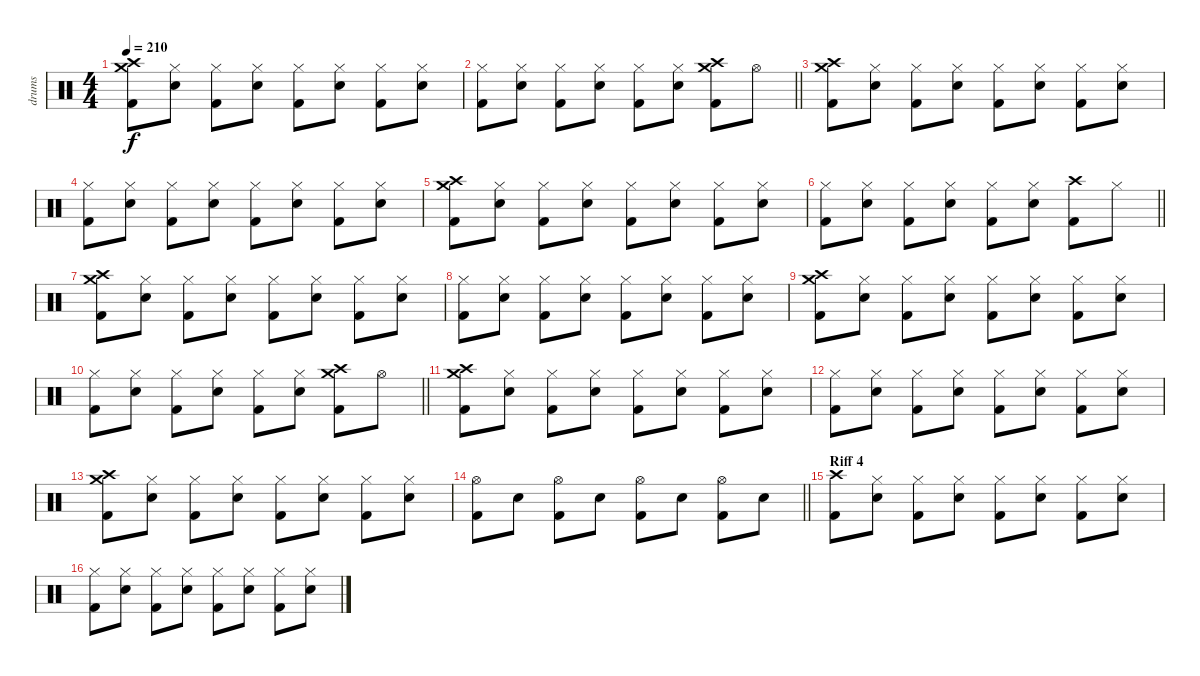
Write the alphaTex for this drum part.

\track ("drums" "drums") {instrument percussion}
\staff {score}
\articulation defaults
\ts (4 4)
\tempo 210
\clef neutral
\ks c
("Crash high (hit)" "Crash medium (hit)" "Kick (hit) 2").8{dy f} ("Hi-Hat (closed)" "Electric Snare (hit)").8 ("Hi-Hat (closed)" "Kick (hit) 2").8 ("Hi-Hat (closed)" "Electric Snare (hit)").8 ("Hi-Hat (closed)" "Kick (hit) 2").8 ("Hi-Hat (closed)" "Electric Snare (hit)").8 ("Hi-Hat (closed)" "Kick (hit) 2").8 ("Hi-Hat (closed)" "Electric Snare (hit)").8 |
\barLineRight lightlight
("Hi-Hat (closed)" "Kick (hit) 2").8 ("Hi-Hat (closed)" "Electric Snare (hit)").8 ("Hi-Hat (closed)" "Kick (hit) 2").8 ("Hi-Hat (closed)" "Electric Snare (hit)").8 ("Hi-Hat (closed)" "Kick (hit) 2").8 ("Hi-Hat (closed)" "Electric Snare (hit)").8 ("Crash high (hit)" "Crash medium (hit)" "Kick (hit) 2").8 "Hi-Hat (open)".8 |
("Crash high (hit)" "Crash medium (hit)" "Kick (hit) 2").8 ("Hi-Hat (closed)" "Electric Snare (hit)").8 ("Hi-Hat (closed)" "Kick (hit) 2").8 ("Hi-Hat (closed)" "Electric Snare (hit)").8 ("Hi-Hat (closed)" "Kick (hit) 2").8 ("Hi-Hat (closed)" "Electric Snare (hit)").8 ("Hi-Hat (closed)" "Kick (hit) 2").8 ("Hi-Hat (closed)" "Electric Snare (hit)").8 |
("Hi-Hat (closed)" "Kick (hit) 2").8 ("Hi-Hat (closed)" "Electric Snare (hit)").8 ("Hi-Hat (closed)" "Kick (hit) 2").8 ("Hi-Hat (closed)" "Electric Snare (hit)").8 ("Hi-Hat (closed)" "Kick (hit) 2").8 ("Hi-Hat (closed)" "Electric Snare (hit)").8 ("Hi-Hat (closed)" "Kick (hit) 2").8 ("Hi-Hat (closed)" "Electric Snare (hit)").8 |
("Crash high (hit)" "Crash medium (hit)" "Kick (hit) 2").8 ("Hi-Hat (closed)" "Electric Snare (hit)").8 ("Hi-Hat (closed)" "Kick (hit) 2").8 ("Hi-Hat (closed)" "Electric Snare (hit)").8 ("Hi-Hat (closed)" "Kick (hit) 2").8 ("Hi-Hat (closed)" "Electric Snare (hit)").8 ("Hi-Hat (closed)" "Kick (hit) 2").8 ("Hi-Hat (closed)" "Electric Snare (hit)").8 |
\barLineRight lightlight
("Hi-Hat (closed)" "Kick (hit) 2").8 ("Hi-Hat (closed)" "Electric Snare (hit)").8 ("Hi-Hat (closed)" "Kick (hit) 2").8 ("Hi-Hat (closed)" "Electric Snare (hit)").8 ("Hi-Hat (closed)" "Kick (hit) 2").8 ("Hi-Hat (closed)" "Electric Snare (hit)").8 ("Crash high (hit)" "Kick (hit) 2").8 "Hi-Hat (closed)".8 |
("Crash high (hit)" "Crash medium (hit)" "Kick (hit) 2").8 ("Hi-Hat (closed)" "Electric Snare (hit)").8 ("Hi-Hat (closed)" "Kick (hit) 2").8 ("Hi-Hat (closed)" "Electric Snare (hit)").8 ("Hi-Hat (closed)" "Kick (hit) 2").8 ("Hi-Hat (closed)" "Electric Snare (hit)").8 ("Hi-Hat (closed)" "Kick (hit) 2").8 ("Hi-Hat (closed)" "Electric Snare (hit)").8 |
("Hi-Hat (closed)" "Kick (hit) 2").8 ("Hi-Hat (closed)" "Electric Snare (hit)").8 ("Hi-Hat (closed)" "Kick (hit) 2").8 ("Hi-Hat (closed)" "Electric Snare (hit)").8 ("Hi-Hat (closed)" "Kick (hit) 2").8 ("Hi-Hat (closed)" "Electric Snare (hit)").8 ("Hi-Hat (closed)" "Kick (hit) 2").8 ("Hi-Hat (closed)" "Electric Snare (hit)").8 |
("Crash high (hit)" "Crash medium (hit)" "Kick (hit) 2").8 ("Hi-Hat (closed)" "Electric Snare (hit)").8 ("Hi-Hat (closed)" "Kick (hit) 2").8 ("Hi-Hat (closed)" "Electric Snare (hit)").8 ("Hi-Hat (closed)" "Kick (hit) 2").8 ("Hi-Hat (closed)" "Electric Snare (hit)").8 ("Hi-Hat (closed)" "Kick (hit) 2").8 ("Hi-Hat (closed)" "Electric Snare (hit)").8 |
\barLineRight lightlight
("Hi-Hat (closed)" "Kick (hit) 2").8 ("Hi-Hat (closed)" "Electric Snare (hit)").8 ("Hi-Hat (closed)" "Kick (hit) 2").8 ("Hi-Hat (closed)" "Electric Snare (hit)").8 ("Hi-Hat (closed)" "Kick (hit) 2").8 ("Hi-Hat (closed)" "Electric Snare (hit)").8 ("Crash high (hit)" "Crash medium (hit)" "Kick (hit) 2").8 "Hi-Hat (open)".8 |
("Crash high (hit)" "Crash medium (hit)" "Kick (hit) 2").8 ("Hi-Hat (closed)" "Electric Snare (hit)").8 ("Hi-Hat (closed)" "Kick (hit) 2").8 ("Hi-Hat (closed)" "Electric Snare (hit)").8 ("Hi-Hat (closed)" "Kick (hit) 2").8 ("Hi-Hat (closed)" "Electric Snare (hit)").8 ("Hi-Hat (closed)" "Kick (hit) 2").8 ("Hi-Hat (closed)" "Electric Snare (hit)").8 |
("Hi-Hat (closed)" "Kick (hit) 2").8 ("Hi-Hat (closed)" "Electric Snare (hit)").8 ("Hi-Hat (closed)" "Kick (hit) 2").8 ("Hi-Hat (closed)" "Electric Snare (hit)").8 ("Hi-Hat (closed)" "Kick (hit) 2").8 ("Hi-Hat (closed)" "Electric Snare (hit)").8 ("Hi-Hat (closed)" "Kick (hit) 2").8 ("Hi-Hat (closed)" "Electric Snare (hit)").8 |
("Crash high (hit)" "Crash medium (hit)" "Kick (hit) 2").8 ("Hi-Hat (closed)" "Electric Snare (hit)").8 ("Hi-Hat (closed)" "Kick (hit) 2").8 ("Hi-Hat (closed)" "Electric Snare (hit)").8 ("Hi-Hat (closed)" "Kick (hit) 2").8 ("Hi-Hat (closed)" "Electric Snare (hit)").8 ("Hi-Hat (closed)" "Kick (hit) 2").8 ("Hi-Hat (closed)" "Electric Snare (hit)").8 |
\barLineRight lightlight
("Hi-Hat (open)" "Kick (hit) 2").8 "Electric Snare (hit)".8 ("Hi-Hat (open)" "Kick (hit) 2").8 "Electric Snare (hit)".8 ("Hi-Hat (open)" "Kick (hit) 2").8 "Electric Snare (hit)".8 ("Hi-Hat (open)" "Kick (hit) 2").8 "Electric Snare (hit)".8 |
\section ("" "Riff 4")
("Crash high (hit)" "Kick (hit) 2").8 ("Hi-Hat (closed)" "Electric Snare (hit)").8 ("Hi-Hat (closed)" "Kick (hit) 2").8 ("Hi-Hat (closed)" "Electric Snare (hit)").8 ("Hi-Hat (closed)" "Kick (hit) 2").8 ("Hi-Hat (closed)" "Electric Snare (hit)").8 ("Hi-Hat (closed)" "Kick (hit) 2").8 ("Hi-Hat (closed)" "Electric Snare (hit)").8 |
("Hi-Hat (closed)" "Kick (hit) 2").8 ("Hi-Hat (closed)" "Electric Snare (hit)").8 ("Hi-Hat (closed)" "Kick (hit) 2").8 ("Hi-Hat (closed)" "Electric Snare (hit)").8 ("Hi-Hat (closed)" "Kick (hit) 2").8 ("Hi-Hat (closed)" "Electric Snare (hit)").8 ("Hi-Hat (closed)" "Kick (hit) 2").8 ("Hi-Hat (closed)" "Electric Snare (hit)").8
